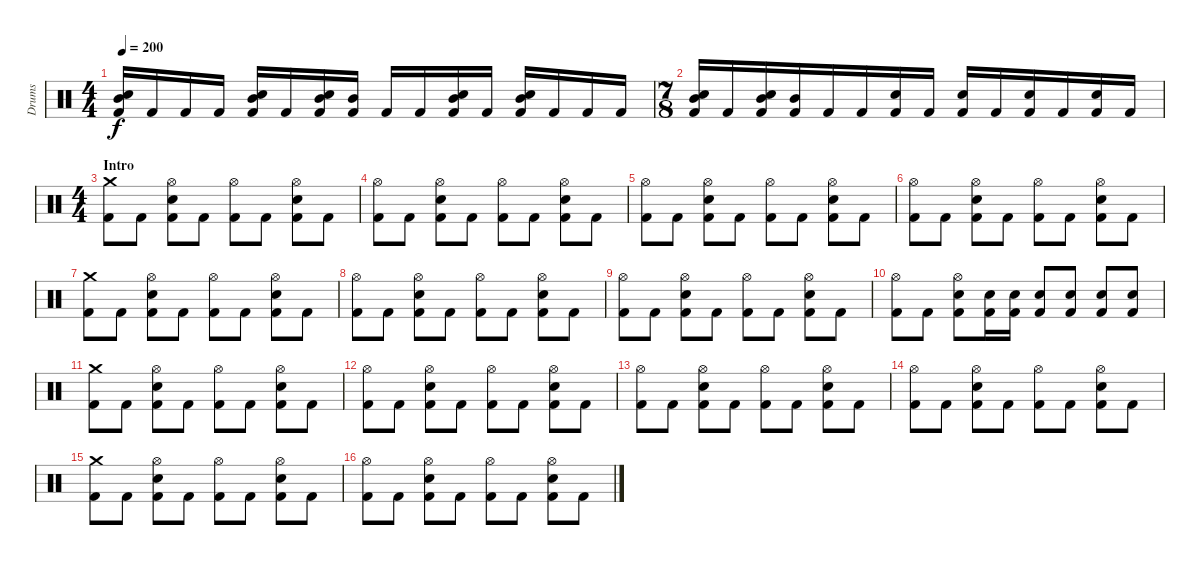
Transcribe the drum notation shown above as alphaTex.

\track ("Drums" "Drums") {instrument percussion}
\staff {score}
\articulation defaults
\ts (4 4)
\tempo 200
\clef neutral
\ks c
("Mid Tom (hit)" "Snare (hit) 2" "Kick (hit) 2").16{dy f} "Kick (hit) 2".16 "Kick (hit) 2".16 "Kick (hit) 2".16 ("Mid Tom (hit)" "Snare (hit) 2" "Kick (hit) 2").16 "Kick (hit) 2".16 ("Mid Tom (hit)" "Snare (hit) 2" "Kick (hit) 2").16 ("Mid Tom (hit)" "Kick (hit) 2").16 "Kick (hit) 2".16 "Kick (hit) 2".16 ("Mid Tom (hit)" "Snare (hit) 2" "Kick (hit) 2").16 "Kick (hit) 2".16 ("Mid Tom (hit)" "Snare (hit) 2" "Kick (hit) 2").16 "Kick (hit) 2".16 "Kick (hit) 2".16 "Kick (hit) 2".16 |
\ts (7 8)
("Mid Tom (hit)" "Snare (hit) 2" "Kick (hit) 2").16 "Kick (hit) 2".16 ("Mid Tom (hit)" "Snare (hit) 2" "Kick (hit) 2").16 ("Mid Tom (hit)" "Kick (hit) 2").16 "Kick (hit) 2".16 "Kick (hit) 2".16 ("Snare (hit) 2" "Kick (hit) 2").16 "Kick (hit) 2".16 ("Snare (hit) 2" "Kick (hit) 2").16 "Kick (hit) 2".16 ("Snare (hit) 2" "Kick (hit) 2").16 "Kick (hit) 2".16 ("Snare (hit) 2" "Kick (hit) 2").16 "Kick (hit) 2".16 |
\ts (4 4)
\section ("" "Intro")
("Crash medium (hit)" "Kick (hit) 2").8 "Kick (hit) 2".8 ("Hi-Hat (open)" "Snare (hit) 2" "Kick (hit) 2").8 "Kick (hit) 2".8 ("Hi-Hat (open)" "Kick (hit) 2").8 "Kick (hit) 2".8 ("Hi-Hat (open)" "Snare (hit) 2" "Kick (hit) 2").8 "Kick (hit) 2".8 |
("Hi-Hat (open)" "Kick (hit) 2").8 "Kick (hit) 2".8 ("Hi-Hat (open)" "Snare (hit) 2" "Kick (hit) 2").8 "Kick (hit) 2".8 ("Hi-Hat (open)" "Kick (hit) 2").8 "Kick (hit) 2".8 ("Hi-Hat (open)" "Snare (hit) 2" "Kick (hit) 2").8 "Kick (hit) 2".8 |
("Hi-Hat (open)" "Kick (hit) 2").8 "Kick (hit) 2".8 ("Hi-Hat (open)" "Snare (hit) 2" "Kick (hit) 2").8 "Kick (hit) 2".8 ("Hi-Hat (open)" "Kick (hit) 2").8 "Kick (hit) 2".8 ("Hi-Hat (open)" "Snare (hit) 2" "Kick (hit) 2").8 "Kick (hit) 2".8 |
("Hi-Hat (open)" "Kick (hit) 2").8 "Kick (hit) 2".8 ("Hi-Hat (open)" "Snare (hit) 2" "Kick (hit) 2").8 "Kick (hit) 2".8 ("Hi-Hat (open)" "Kick (hit) 2").8 "Kick (hit) 2".8 ("Hi-Hat (open)" "Snare (hit) 2" "Kick (hit) 2").8 "Kick (hit) 2".8 |
("Crash medium (hit)" "Kick (hit) 2").8 "Kick (hit) 2".8 ("Hi-Hat (open)" "Snare (hit) 2" "Kick (hit) 2").8 "Kick (hit) 2".8 ("Hi-Hat (open)" "Kick (hit) 2").8 "Kick (hit) 2".8 ("Hi-Hat (open)" "Snare (hit) 2" "Kick (hit) 2").8 "Kick (hit) 2".8 |
("Hi-Hat (open)" "Kick (hit) 2").8 "Kick (hit) 2".8 ("Hi-Hat (open)" "Snare (hit) 2" "Kick (hit) 2").8 "Kick (hit) 2".8 ("Hi-Hat (open)" "Kick (hit) 2").8 "Kick (hit) 2".8 ("Hi-Hat (open)" "Snare (hit) 2" "Kick (hit) 2").8 "Kick (hit) 2".8 |
("Hi-Hat (open)" "Kick (hit) 2").8 "Kick (hit) 2".8 ("Hi-Hat (open)" "Snare (hit) 2" "Kick (hit) 2").8 "Kick (hit) 2".8 ("Hi-Hat (open)" "Kick (hit) 2").8 "Kick (hit) 2".8 ("Hi-Hat (open)" "Snare (hit) 2" "Kick (hit) 2").8 "Kick (hit) 2".8 |
("Hi-Hat (open)" "Kick (hit) 2").8 "Kick (hit) 2".8 ("Hi-Hat (open)" "Snare (hit) 2" "Kick (hit) 2").8 ("Snare (hit) 2" "Kick (hit) 2").16 ("Snare (hit) 2" "Kick (hit) 2").16 ("Snare (hit) 2" "Kick (hit) 2").8 ("Snare (hit) 2" "Kick (hit) 2").8 ("Snare (hit) 2" "Kick (hit) 2").8 ("Snare (hit) 2" "Kick (hit) 2").8 |
("Crash medium (hit)" "Kick (hit) 2").8 "Kick (hit) 2".8 ("Hi-Hat (open)" "Snare (hit) 2" "Kick (hit) 2").8 "Kick (hit) 2".8 ("Hi-Hat (open)" "Kick (hit) 2").8 "Kick (hit) 2".8 ("Hi-Hat (open)" "Snare (hit) 2" "Kick (hit) 2").8 "Kick (hit) 2".8 |
("Hi-Hat (open)" "Kick (hit) 2").8 "Kick (hit) 2".8 ("Hi-Hat (open)" "Snare (hit) 2" "Kick (hit) 2").8 "Kick (hit) 2".8 ("Hi-Hat (open)" "Kick (hit) 2").8 "Kick (hit) 2".8 ("Hi-Hat (open)" "Snare (hit) 2" "Kick (hit) 2").8 "Kick (hit) 2".8 |
("Hi-Hat (open)" "Kick (hit) 2").8 "Kick (hit) 2".8 ("Hi-Hat (open)" "Snare (hit) 2" "Kick (hit) 2").8 "Kick (hit) 2".8 ("Hi-Hat (open)" "Kick (hit) 2").8 "Kick (hit) 2".8 ("Hi-Hat (open)" "Snare (hit) 2" "Kick (hit) 2").8 "Kick (hit) 2".8 |
("Hi-Hat (open)" "Kick (hit) 2").8 "Kick (hit) 2".8 ("Hi-Hat (open)" "Snare (hit) 2" "Kick (hit) 2").8 "Kick (hit) 2".8 ("Hi-Hat (open)" "Kick (hit) 2").8 "Kick (hit) 2".8 ("Hi-Hat (open)" "Snare (hit) 2" "Kick (hit) 2").8 "Kick (hit) 2".8 |
("Crash medium (hit)" "Kick (hit) 2").8 "Kick (hit) 2".8 ("Hi-Hat (open)" "Snare (hit) 2" "Kick (hit) 2").8 "Kick (hit) 2".8 ("Hi-Hat (open)" "Kick (hit) 2").8 "Kick (hit) 2".8 ("Hi-Hat (open)" "Snare (hit) 2" "Kick (hit) 2").8 "Kick (hit) 2".8 |
("Hi-Hat (open)" "Kick (hit) 2").8 "Kick (hit) 2".8 ("Hi-Hat (open)" "Snare (hit) 2" "Kick (hit) 2").8 "Kick (hit) 2".8 ("Hi-Hat (open)" "Kick (hit) 2").8 "Kick (hit) 2".8 ("Hi-Hat (open)" "Snare (hit) 2" "Kick (hit) 2").8 "Kick (hit) 2".8
